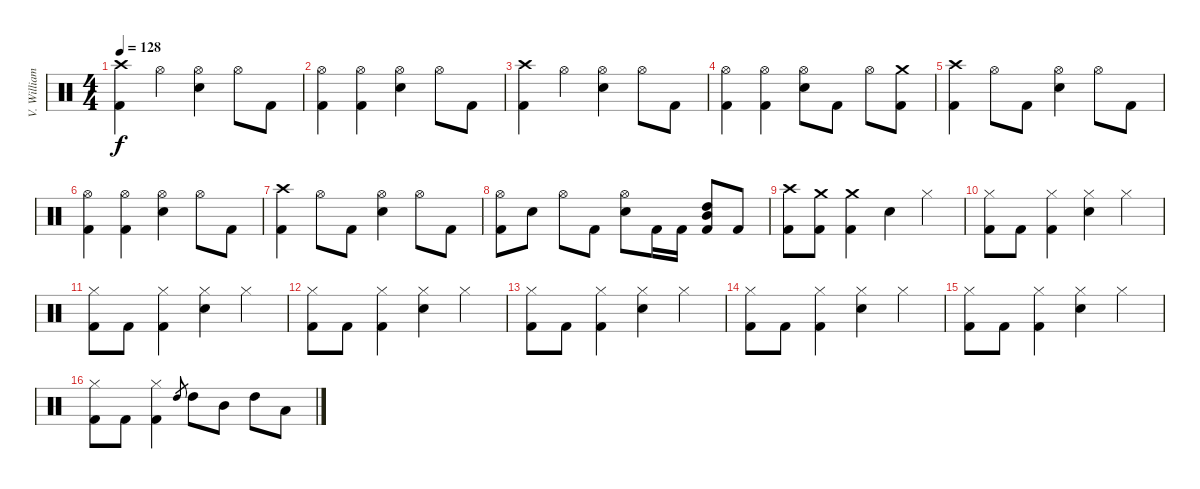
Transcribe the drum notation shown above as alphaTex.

\track ("V. Williams" "V. William") {instrument percussion}
\staff {score}
\articulation defaults
\ts (4 4)
\section ("" "")
\tempo 128
\clef neutral
\ks c
("Crash high (hit)" "Kick (hit) 2").4{dy f} "Hi-Hat (open)".4 ("Hi-Hat (open)" "Electric Snare (hit)").4 "Hi-Hat (open)".8 "Kick (hit) 2".8 |
("Hi-Hat (open)" "Kick (hit) 2").4 ("Hi-Hat (open)" "Kick (hit) 2").4 ("Hi-Hat (open)" "Electric Snare (hit)").4 "Hi-Hat (open)".8 "Kick (hit) 2".8 |
("Crash high (hit)" "Kick (hit) 2").4 "Hi-Hat (open)".4 ("Hi-Hat (open)" "Electric Snare (hit)").4 "Hi-Hat (open)".8 "Kick (hit) 2".8 |
("Hi-Hat (open)" "Kick (hit) 2").4 ("Hi-Hat (open)" "Kick (hit) 2").4 ("Hi-Hat (open)" "Electric Snare (hit)").8 "Kick (hit) 2".8 "Hi-Hat (open)".8 ("Crash medium (hit)" "Kick (hit) 2").8 |
("Crash high (hit)" "Kick (hit) 2").4 "Hi-Hat (open)".8 "Kick (hit) 2".8 ("Hi-Hat (open)" "Electric Snare (hit)").4 "Hi-Hat (open)".8 "Kick (hit) 2".8 |
("Hi-Hat (open)" "Kick (hit) 2").4 ("Hi-Hat (open)" "Kick (hit) 2").4 ("Hi-Hat (open)" "Electric Snare (hit)").4 "Hi-Hat (open)".8 "Kick (hit) 2".8 |
("Crash high (hit)" "Kick (hit) 2").4 "Hi-Hat (open)".8 "Kick (hit) 2".8 ("Hi-Hat (open)" "Electric Snare (hit)").4 "Hi-Hat (open)".8 "Kick (hit) 2".8 |
("Hi-Hat (open)" "Kick (hit) 2").8 "Electric Snare (hit)".8 "Hi-Hat (open)".8 "Kick (hit) 2".8 ("Hi-Hat (open)" "Electric Snare (hit)").8 "Kick (hit) 2".16 "Kick (hit) 2".16 ("High Tom (hit)" "Mid Tom (hit)" "Kick (hit) 2").8 "Kick (hit) 2".8 |
("Crash high (hit)" "Kick (hit) 2").8 ("Crash medium (hit)" "Kick (hit) 2").8 ("Crash medium (hit)" "Kick (hit) 2").4 "Electric Snare (hit)".4 "Hi-Hat (closed)".4 |
("Hi-Hat (closed)" "Kick (hit) 2").8 "Kick (hit) 2".8 ("Hi-Hat (closed)" "Kick (hit) 2").4 ("Hi-Hat (closed)" "Electric Snare (hit)").4 "Hi-Hat (closed)".4 |
("Hi-Hat (closed)" "Kick (hit) 2").8 "Kick (hit) 2".8 ("Hi-Hat (closed)" "Kick (hit) 2").4 ("Hi-Hat (closed)" "Electric Snare (hit)").4 "Hi-Hat (closed)".4 |
("Hi-Hat (closed)" "Kick (hit) 2").8 "Kick (hit) 2".8 ("Hi-Hat (closed)" "Kick (hit) 2").4 ("Hi-Hat (closed)" "Electric Snare (hit)").4 "Hi-Hat (closed)".4 |
("Hi-Hat (closed)" "Kick (hit) 2").8 "Kick (hit) 2".8 ("Hi-Hat (closed)" "Kick (hit) 2").4 ("Hi-Hat (closed)" "Electric Snare (hit)").4 "Hi-Hat (closed)".4 |
("Hi-Hat (closed)" "Kick (hit) 2").8 "Kick (hit) 2".8 ("Hi-Hat (closed)" "Kick (hit) 2").4 ("Hi-Hat (closed)" "Electric Snare (hit)").4 "Hi-Hat (closed)".4 |
("Hi-Hat (closed)" "Kick (hit) 2").8 "Kick (hit) 2".8 ("Hi-Hat (closed)" "Kick (hit) 2").4 ("Hi-Hat (closed)" "Electric Snare (hit)").4 "Hi-Hat (closed)".4 |
("Hi-Hat (closed)" "Kick (hit) 2").8 "Kick (hit) 2".8 ("Hi-Hat (closed)" "Kick (hit) 2").4 "High Tom (hit)".8{gr} "High Tom (hit)".8 "Mid Tom (hit)".8 "High Tom (hit)".8 "Low Tom (hit)".8
